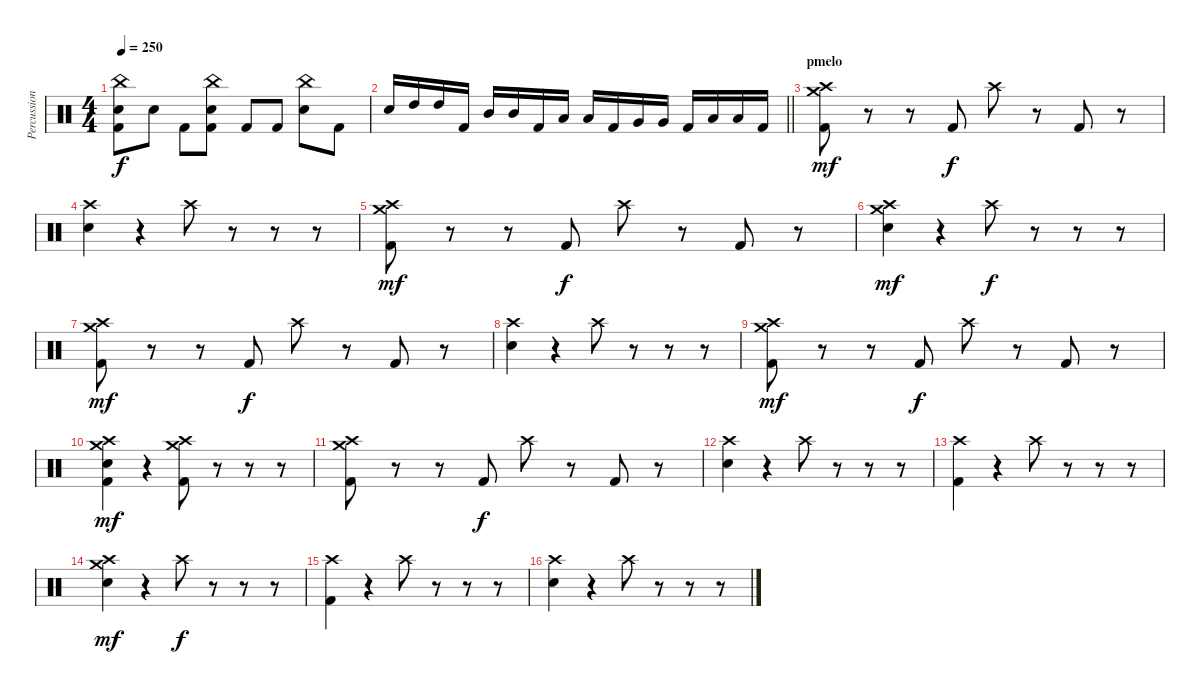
\track ("Percussions" "Percussion") {instrument percussion}
\staff {score}
\articulation defaults
\ts (4 4)
\tempo 250
\clef neutral
\ks c
("China (hit)" "Electric Snare (hit)" "Kick (hit) 2").8{dy f} "Electric Snare (hit)".8 "Kick (hit) 2".8 ("China (hit)" "Electric Snare (hit)" "Kick (hit) 2").8 "Kick (hit) 2".8 "Kick (hit) 2".8 ("China (hit)" "Electric Snare (hit)").8 "Kick (hit) 2".8 |
\barLineRight lightlight "Electric Snare (hit)".16 "High Tom (hit)".16 "High Tom (hit)".16 "Kick (hit) 2".16 "Mid Tom (hit)".16 "Mid Tom (hit)".16 "Kick (hit) 2".16 "Low Tom (hit)".16 "Low Tom (hit)".16 "Kick (hit) 2".16 "Very Low Tom (hit)".16 "Very Low Tom (hit)".16 "Kick (hit) 2".16 "Low Floor Tom (hit)".16 "Low Floor Tom (hit)".16 "Kick (hit) 2".16
|
\section ("" "pmelo")
("Crash medium (hit)" "Crash high (hit)" "Kick (hit) 2").8{dy mf} r.8 r.8 "Kick (hit) 2".8{dy f} "Crash high (hit)".8 r.8 "Kick (hit) 2".8 r.8 |
("Crash high (hit)" "Electric Snare (hit)").4 r.4 "Crash high (hit)".8 r.8 r.8 r.8 |
("Crash medium (hit)" "Crash high (hit)" "Kick (hit) 2").8{dy mf} r.8 r.8 "Kick (hit) 2".8{dy f} "Crash high (hit)".8 r.8 "Kick (hit) 2".8 r.8 |
("Crash medium (hit)" "Crash high (hit)" "Electric Snare (hit)").4{dy mf} r.4 "Crash high (hit)".8{dy f} r.8 r.8 r.8 |
("Crash medium (hit)" "Crash high (hit)" "Kick (hit) 2").8{dy mf} r.8 r.8 "Kick (hit) 2".8{dy f} "Crash high (hit)".8 r.8 "Kick (hit) 2".8 r.8 |
("Crash high (hit)" "Electric Snare (hit)").4 r.4 "Crash high (hit)".8 r.8 r.8 r.8 |
("Crash medium (hit)" "Crash high (hit)" "Kick (hit) 2").8{dy mf} r.8 r.8 "Kick (hit) 2".8{dy f} "Crash high (hit)".8 r.8 "Kick (hit) 2".8 r.8 |
("Crash medium (hit)" "Crash high (hit)" "Electric Snare (hit)" "Kick (hit) 2").4{dy mf} r.4 ("Crash medium (hit)" "Crash high (hit)" "Kick (hit) 2").8 r.8 r.8 r.8 |
("Crash medium (hit)" "Crash high (hit)" "Kick (hit) 2").8 r.8 r.8 "Kick (hit) 2".8{dy f} "Crash high (hit)".8 r.8 "Kick (hit) 2".8 r.8 |
("Crash high (hit)" "Electric Snare (hit)").4 r.4 "Crash high (hit)".8 r.8 r.8 r.8 |
("Crash high (hit)" "Kick (hit) 2").4 r.4 "Crash high (hit)".8 r.8 r.8 r.8 |
("Crash medium (hit)" "Crash high (hit)" "Electric Snare (hit)").4{dy mf} r.4 "Crash high (hit)".8{dy f} r.8 r.8 r.8 |
("Crash high (hit)" "Kick (hit) 2").4 r.4 "Crash high (hit)".8 r.8 r.8 r.8 |
("Crash high (hit)" "Electric Snare (hit)").4 r.4 "Crash high (hit)".8 r.8 r.8 r.8
